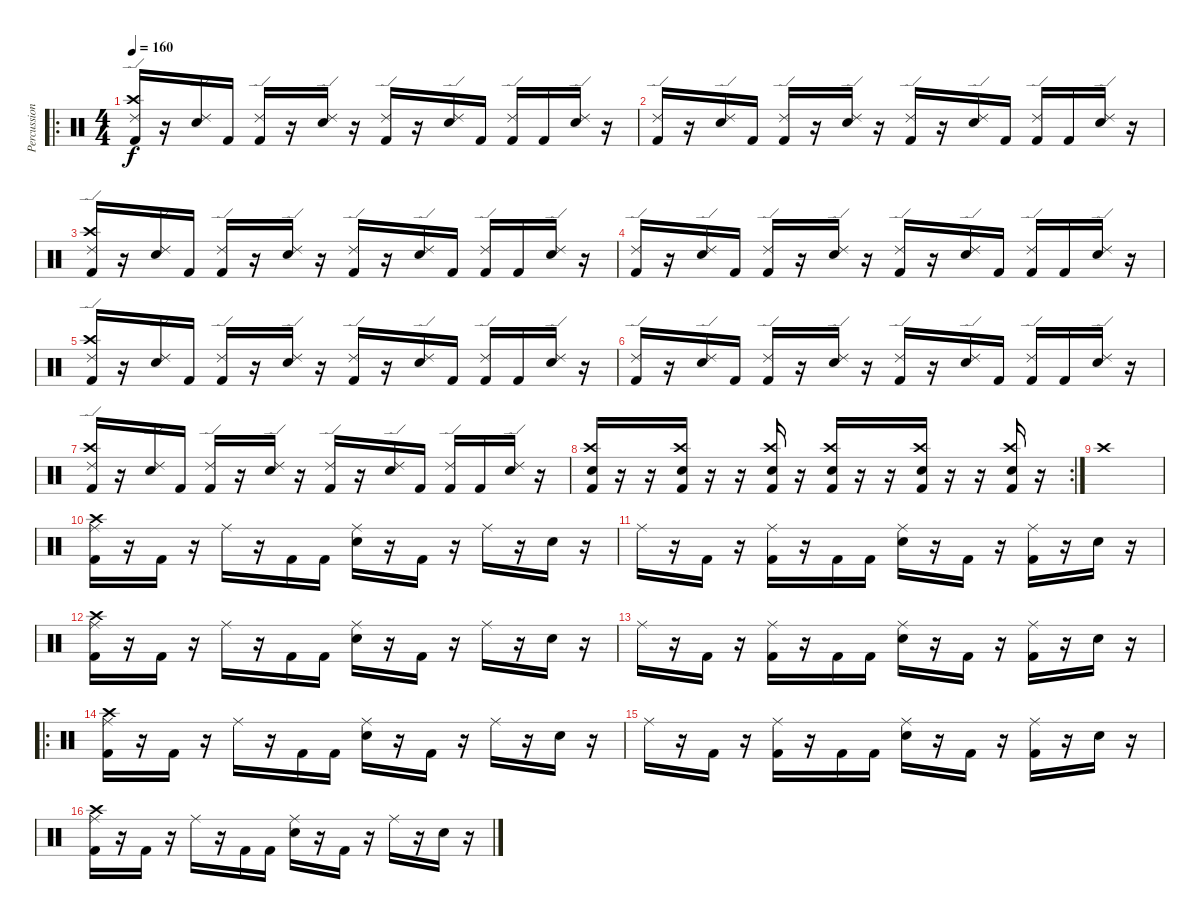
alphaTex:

\track ("Percussion" "Percussion") {instrument percussion}
\staff {score}
\articulation defaults
\ro
\ts (4 4)
\tempo 160
\clef neutral
\ks c
("Kick (hit) 2" "Crash high (hit)" "Ride (edge) 2").16{dy f} r.16 ("Snare (hit) 2" "Ride (edge) 2").16 "Kick (hit) 2".16 ("Kick (hit) 2" "Ride (edge) 2").16 r.16 ("Snare (hit) 2" "Ride (edge) 2").16 r.16 ("Kick (hit) 2" "Ride (edge) 2").16 r.16 ("Snare (hit) 2" "Ride (edge) 2").16 "Kick (hit) 2".16 ("Kick (hit) 2" "Ride (edge) 2").16 "Kick (hit) 2".16 ("Snare (hit) 2" "Ride (edge) 2").16 r.16 |
("Kick (hit) 2" "Ride (edge) 2").16 r.16 ("Snare (hit) 2" "Ride (edge) 2").16 "Kick (hit) 2".16 ("Kick (hit) 2" "Ride (edge) 2").16 r.16 ("Snare (hit) 2" "Ride (edge) 2").16 r.16 ("Kick (hit) 2" "Ride (edge) 2").16 r.16 ("Snare (hit) 2" "Ride (edge) 2").16 "Kick (hit) 2".16 ("Kick (hit) 2" "Ride (edge) 2").16 "Kick (hit) 2".16 ("Snare (hit) 2" "Ride (edge) 2").16 r.16 |
("Kick (hit) 2" "Crash high (hit)" "Ride (edge) 2").16 r.16 ("Snare (hit) 2" "Ride (edge) 2").16 "Kick (hit) 2".16 ("Kick (hit) 2" "Ride (edge) 2").16 r.16 ("Snare (hit) 2" "Ride (edge) 2").16 r.16 ("Kick (hit) 2" "Ride (edge) 2").16 r.16 ("Snare (hit) 2" "Ride (edge) 2").16 "Kick (hit) 2".16 ("Kick (hit) 2" "Ride (edge) 2").16 "Kick (hit) 2".16 ("Snare (hit) 2" "Ride (edge) 2").16 r.16 |
("Kick (hit) 2" "Ride (edge) 2").16 r.16 ("Snare (hit) 2" "Ride (edge) 2").16 "Kick (hit) 2".16 ("Kick (hit) 2" "Ride (edge) 2").16 r.16 ("Snare (hit) 2" "Ride (edge) 2").16 r.16 ("Kick (hit) 2" "Ride (edge) 2").16 r.16 ("Snare (hit) 2" "Ride (edge) 2").16 "Kick (hit) 2".16 ("Kick (hit) 2" "Ride (edge) 2").16 "Kick (hit) 2".16 ("Snare (hit) 2" "Ride (edge) 2").16 r.16 |
("Kick (hit) 2" "Crash high (hit)" "Ride (edge) 2").16 r.16 ("Snare (hit) 2" "Ride (edge) 2").16 "Kick (hit) 2".16 ("Kick (hit) 2" "Ride (edge) 2").16 r.16 ("Snare (hit) 2" "Ride (edge) 2").16 r.16 ("Kick (hit) 2" "Ride (edge) 2").16 r.16 ("Snare (hit) 2" "Ride (edge) 2").16 "Kick (hit) 2".16 ("Kick (hit) 2" "Ride (edge) 2").16 "Kick (hit) 2".16 ("Snare (hit) 2" "Ride (edge) 2").16 r.16 |
("Kick (hit) 2" "Ride (edge) 2").16 r.16 ("Snare (hit) 2" "Ride (edge) 2").16 "Kick (hit) 2".16 ("Kick (hit) 2" "Ride (edge) 2").16 r.16 ("Snare (hit) 2" "Ride (edge) 2").16 r.16 ("Kick (hit) 2" "Ride (edge) 2").16 r.16 ("Snare (hit) 2" "Ride (edge) 2").16 "Kick (hit) 2".16 ("Kick (hit) 2" "Ride (edge) 2").16 "Kick (hit) 2".16 ("Snare (hit) 2" "Ride (edge) 2").16 r.16 |
("Kick (hit) 2" "Crash high (hit)" "Ride (edge) 2").16 r.16 ("Snare (hit) 2" "Ride (edge) 2").16 "Kick (hit) 2".16 ("Kick (hit) 2" "Ride (edge) 2").16 r.16 ("Snare (hit) 2" "Ride (edge) 2").16 r.16 ("Kick (hit) 2" "Ride (edge) 2").16 r.16 ("Snare (hit) 2" "Ride (edge) 2").16 "Kick (hit) 2".16 ("Kick (hit) 2" "Ride (edge) 2").16 "Kick (hit) 2".16 ("Snare (hit) 2" "Ride (edge) 2").16 r.16 |
\rc 2
("Kick (hit) 2" "Snare (hit) 2" "Crash high (hit)").16 r.16 r.16 ("Kick (hit) 2" "Snare (hit) 2" "Crash high (hit)").16 r.16 r.16 ("Kick (hit) 2" "Snare (hit) 2" "Crash high (hit)").16 r.16 ("Kick (hit) 2" "Snare (hit) 2" "Crash high (hit)").16 r.16 r.16 ("Kick (hit) 2" "Snare (hit) 2" "Crash high (hit)").16 r.16 r.16 ("Kick (hit) 2" "Snare (hit) 2" "Crash high (hit)").16 r.16 |
"Crash high (hit)".1 |
("Kick (hit) 2" "Crash high (hit)" "Ride (middle)").16 r.16 "Kick (hit) 2".16 r.16 "Ride (middle)".16 r.16 "Kick (hit) 2".16 "Kick (hit) 2".16 ("Snare (hit) 2" "Ride (middle)").16 r.16 "Kick (hit) 2".16 r.16 "Ride (middle)".16 r.16 "Snare (hit) 2".16 r.16 |
"Ride (middle)".16 r.16 "Kick (hit) 2".16 r.16 ("Kick (hit) 2" "Ride (middle)").16 r.16 "Kick (hit) 2".16 "Kick (hit) 2".16 ("Snare (hit) 2" "Ride (middle)").16 r.16 "Kick (hit) 2".16 r.16 ("Kick (hit) 2" "Ride (middle)").16 r.16 "Snare (hit) 2".16 r.16 |
("Kick (hit) 2" "Crash high (hit)" "Ride (middle)").16 r.16 "Kick (hit) 2".16 r.16 "Ride (middle)".16 r.16 "Kick (hit) 2".16 "Kick (hit) 2".16 ("Snare (hit) 2" "Ride (middle)").16 r.16 "Kick (hit) 2".16 r.16 "Ride (middle)".16 r.16 "Snare (hit) 2".16 r.16 |
"Ride (middle)".16 r.16 "Kick (hit) 2".16 r.16 ("Kick (hit) 2" "Ride (middle)").16 r.16 "Kick (hit) 2".16 "Kick (hit) 2".16 ("Snare (hit) 2" "Ride (middle)").16 r.16 "Kick (hit) 2".16 r.16 ("Kick (hit) 2" "Ride (middle)").16 r.16 "Snare (hit) 2".16 r.16 |
\ro
("Kick (hit) 2" "Crash high (hit)" "Ride (middle)").16 r.16 "Kick (hit) 2".16 r.16 "Ride (middle)".16 r.16 "Kick (hit) 2".16 "Kick (hit) 2".16 ("Snare (hit) 2" "Ride (middle)").16 r.16 "Kick (hit) 2".16 r.16 "Ride (middle)".16 r.16 "Snare (hit) 2".16 r.16 |
"Ride (middle)".16 r.16 "Kick (hit) 2".16 r.16 ("Kick (hit) 2" "Ride (middle)").16 r.16 "Kick (hit) 2".16 "Kick (hit) 2".16 ("Snare (hit) 2" "Ride (middle)").16 r.16 "Kick (hit) 2".16 r.16 ("Kick (hit) 2" "Ride (middle)").16 r.16 "Snare (hit) 2".16 r.16 |
("Kick (hit) 2" "Crash high (hit)" "Ride (middle)").16 r.16 "Kick (hit) 2".16 r.16 "Ride (middle)".16 r.16 "Kick (hit) 2".16 "Kick (hit) 2".16 ("Snare (hit) 2" "Ride (middle)").16 r.16 "Kick (hit) 2".16 r.16 "Ride (middle)".16 r.16 "Snare (hit) 2".16 r.16
